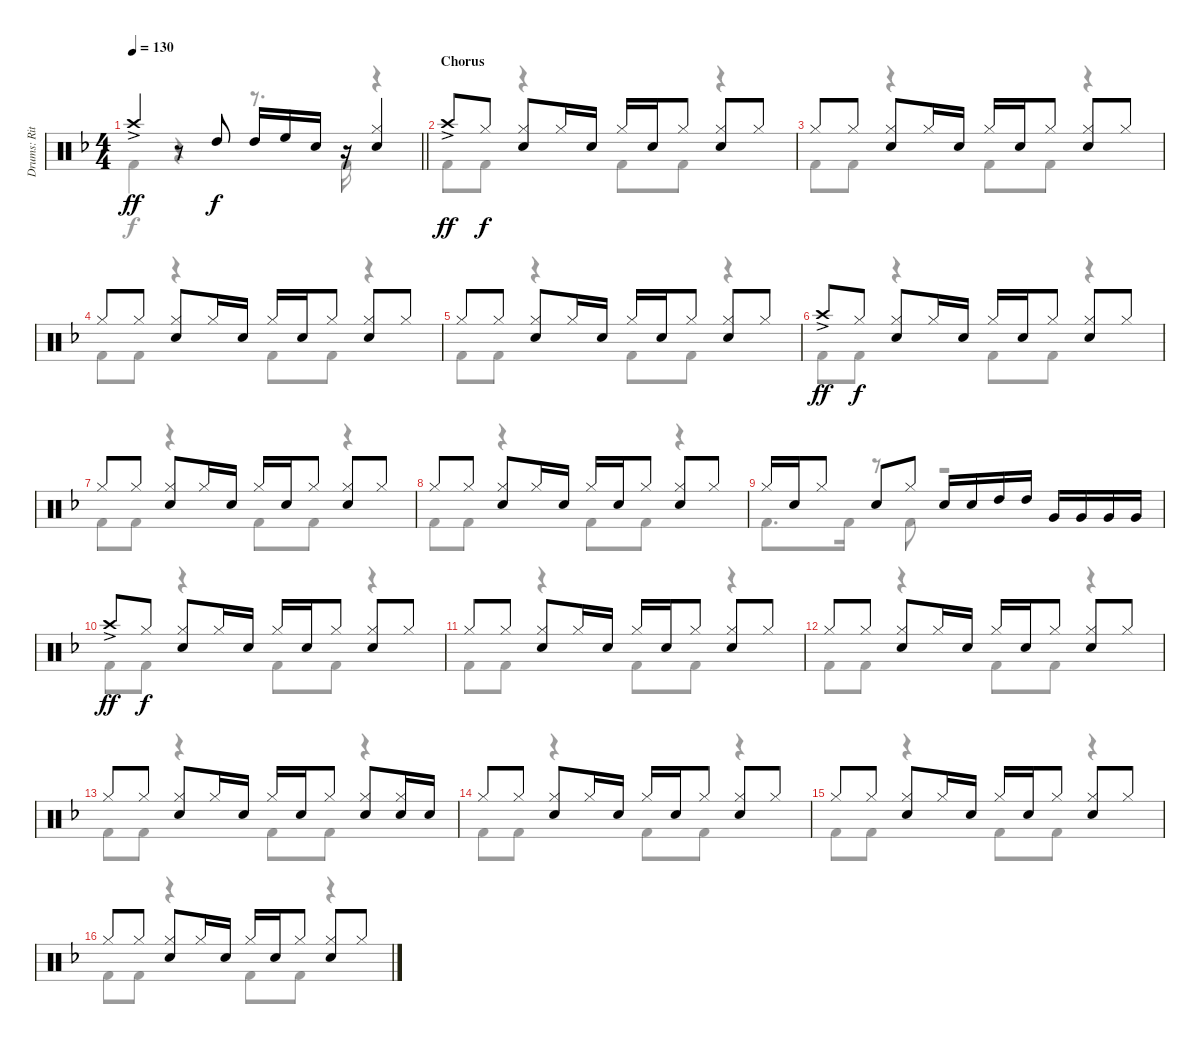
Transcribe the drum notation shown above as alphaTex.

\track ("Drums: Ritsu Tianaka" "Drums: Rit") {instrument percussion}
\staff {score}
\articulation defaults
\voice
\ts (4 4)
\tempo 130
\clef neutral
\barLineRight lightlight
\ks f "Crash high (hit)"{ac}.4{dy ff}
r.8 "High Tom (hit)".8{dy f} "High Tom (hit)".16 "High Floor Tom (hit)".16 "Electric Snare (hit)".16 r.16 ("Hi-Hat (closed)" "Electric Snare (hit)").4 |
\section ("" "Chorus")
"Crash high (hit)"{ac}.8{dy ff} "Hi-Hat (closed)".8{dy f} ("Hi-Hat (closed)" "Electric Snare (hit)").8 "Hi-Hat (closed)".16 "Electric Snare (hit)".16 "Hi-Hat (closed)".16 "Electric Snare (hit)".16 "Hi-Hat (closed)".8 ("Hi-Hat (closed)" "Electric Snare (hit)").8 "Hi-Hat (closed)".8 |
"Hi-Hat (closed)".8 "Hi-Hat (closed)".8 ("Hi-Hat (closed)" "Electric Snare (hit)").8 "Hi-Hat (closed)".16 "Electric Snare (hit)".16 "Hi-Hat (closed)".16 "Electric Snare (hit)".16 "Hi-Hat (closed)".8 ("Hi-Hat (closed)" "Electric Snare (hit)").8 "Hi-Hat (closed)".8 |
"Hi-Hat (closed)".8 "Hi-Hat (closed)".8 ("Hi-Hat (closed)" "Electric Snare (hit)").8 "Hi-Hat (closed)".16 "Electric Snare (hit)".16 "Hi-Hat (closed)".16 "Electric Snare (hit)".16 "Hi-Hat (closed)".8 ("Hi-Hat (closed)" "Electric Snare (hit)").8 "Hi-Hat (closed)".8 |
"Hi-Hat (closed)".8 "Hi-Hat (closed)".8 ("Hi-Hat (closed)" "Electric Snare (hit)").8 "Hi-Hat (closed)".16 "Electric Snare (hit)".16 "Hi-Hat (closed)".16 "Electric Snare (hit)".16 "Hi-Hat (closed)".8 ("Hi-Hat (closed)" "Electric Snare (hit)").8 "Hi-Hat (closed)".8 |
"Crash high (hit)"{ac}.8{dy ff} "Hi-Hat (closed)".8{dy f} ("Hi-Hat (closed)" "Electric Snare (hit)").8 "Hi-Hat (closed)".16 "Electric Snare (hit)".16 "Hi-Hat (closed)".16 "Electric Snare (hit)".16 "Hi-Hat (closed)".8 ("Hi-Hat (closed)" "Electric Snare (hit)").8 "Hi-Hat (closed)".8 |
"Hi-Hat (closed)".8 "Hi-Hat (closed)".8 ("Hi-Hat (closed)" "Electric Snare (hit)").8 "Hi-Hat (closed)".16 "Electric Snare (hit)".16 "Hi-Hat (closed)".16 "Electric Snare (hit)".16 "Hi-Hat (closed)".8 ("Hi-Hat (closed)" "Electric Snare (hit)").8 "Hi-Hat (closed)".8 |
"Hi-Hat (closed)".8 "Hi-Hat (closed)".8 ("Hi-Hat (closed)" "Electric Snare (hit)").8 "Hi-Hat (closed)".16 "Electric Snare (hit)".16 "Hi-Hat (closed)".16 "Electric Snare (hit)".16 "Hi-Hat (closed)".8 ("Hi-Hat (closed)" "Electric Snare (hit)").8 "Hi-Hat (closed)".8 |
"Hi-Hat (closed)".16 "Electric Snare (hit)".16 "Hi-Hat (closed)".8 "Electric Snare (hit)".8 "Hi-Hat (closed)".8 "Electric Snare (hit)".16 "Electric Snare (hit)".16 "High Tom (hit)".16 "High Tom (hit)".16 "Very Low Tom (hit)".16 "Very Low Tom (hit)".16 "Very Low Tom (hit)".16 "Very Low Tom (hit)".16 |
"Crash high (hit)"{ac}.8{dy ff} "Hi-Hat (closed)".8{dy f} ("Hi-Hat (closed)" "Electric Snare (hit)").8 "Hi-Hat (closed)".16 "Electric Snare (hit)".16 "Hi-Hat (closed)".16 "Electric Snare (hit)".16 "Hi-Hat (closed)".8 ("Hi-Hat (closed)" "Electric Snare (hit)").8 "Hi-Hat (closed)".8 |
"Hi-Hat (closed)".8 "Hi-Hat (closed)".8 ("Hi-Hat (closed)" "Electric Snare (hit)").8 "Hi-Hat (closed)".16 "Electric Snare (hit)".16 "Hi-Hat (closed)".16 "Electric Snare (hit)".16 "Hi-Hat (closed)".8 ("Hi-Hat (closed)" "Electric Snare (hit)").8 "Hi-Hat (closed)".8 |
"Hi-Hat (closed)".8 "Hi-Hat (closed)".8 ("Hi-Hat (closed)" "Electric Snare (hit)").8 "Hi-Hat (closed)".16 "Electric Snare (hit)".16 "Hi-Hat (closed)".16 "Electric Snare (hit)".16 "Hi-Hat (closed)".8 ("Hi-Hat (closed)" "Electric Snare (hit)").8 "Hi-Hat (closed)".8 |
"Hi-Hat (closed)".8 "Hi-Hat (closed)".8 ("Hi-Hat (closed)" "Electric Snare (hit)").8 "Hi-Hat (closed)".16 "Electric Snare (hit)".16 "Hi-Hat (closed)".16 "Electric Snare (hit)".16 "Hi-Hat (closed)".8 ("Hi-Hat (closed)" "Electric Snare (hit)").8 ("Hi-Hat (closed)" "Electric Snare (hit)").16 "Electric Snare (hit)".16 |
"Hi-Hat (closed)".8 "Hi-Hat (closed)".8 ("Hi-Hat (closed)" "Electric Snare (hit)").8 "Hi-Hat (closed)".16 "Electric Snare (hit)".16 "Hi-Hat (closed)".16 "Electric Snare (hit)".16 "Hi-Hat (closed)".8 ("Hi-Hat (closed)" "Electric Snare (hit)").8 "Hi-Hat (closed)".8 |
"Hi-Hat (closed)".8 "Hi-Hat (closed)".8 ("Hi-Hat (closed)" "Electric Snare (hit)").8 "Hi-Hat (closed)".16 "Electric Snare (hit)".16 "Hi-Hat (closed)".16 "Electric Snare (hit)".16 "Hi-Hat (closed)".8 ("Hi-Hat (closed)" "Electric Snare (hit)").8 "Hi-Hat (closed)".8 |
"Hi-Hat (closed)".8 "Hi-Hat (closed)".8 ("Hi-Hat (closed)" "Electric Snare (hit)").8 "Hi-Hat (closed)".16 "Electric Snare (hit)".16 "Hi-Hat (closed)".16 "Electric Snare (hit)".16 "Hi-Hat (closed)".8 ("Hi-Hat (closed)" "Electric Snare (hit)").8 "Hi-Hat (closed)".8
\voice
\clef neutral
\ottava regular
\simile none
\barLineRight lightlight
\ks f "Kick (hit) 2".4{dy f}
r.4 r.8{d} "Kick (hit) 2".16 r.4 |
"Kick (hit) 2".8 "Kick (hit) 2".8 r.4 "Kick (hit) 2".8 "Kick (hit) 2".8 r.4 |
"Kick (hit) 2".8 "Kick (hit) 2".8 r.4 "Kick (hit) 2".8 "Kick (hit) 2".8 r.4 |
"Kick (hit) 2".8 "Kick (hit) 2".8 r.4 "Kick (hit) 2".8 "Kick (hit) 2".8 r.4 |
"Kick (hit) 2".8 "Kick (hit) 2".8 r.4 "Kick (hit) 2".8 "Kick (hit) 2".8 r.4 |
"Kick (hit) 2".8 "Kick (hit) 2".8 r.4 "Kick (hit) 2".8 "Kick (hit) 2".8 r.4 |
"Kick (hit) 2".8 "Kick (hit) 2".8 r.4 "Kick (hit) 2".8 "Kick (hit) 2".8 r.4 |
"Kick (hit) 2".8 "Kick (hit) 2".8 r.4 "Kick (hit) 2".8 "Kick (hit) 2".8 r.4 |
"Kick (hit) 2".8{d} "Kick (hit) 2".16 r.8 "Kick (hit) 2".8 r.2 |
"Kick (hit) 2".8 "Kick (hit) 2".8 r.4 "Kick (hit) 2".8 "Kick (hit) 2".8 r.4 |
"Kick (hit) 2".8 "Kick (hit) 2".8 r.4 "Kick (hit) 2".8 "Kick (hit) 2".8 r.4 |
"Kick (hit) 2".8 "Kick (hit) 2".8 r.4 "Kick (hit) 2".8 "Kick (hit) 2".8 r.4 |
"Kick (hit) 2".8 "Kick (hit) 2".8 r.4 "Kick (hit) 2".8 "Kick (hit) 2".8 r.4 |
"Kick (hit) 2".8 "Kick (hit) 2".8 r.4 "Kick (hit) 2".8 "Kick (hit) 2".8 r.4 |
"Kick (hit) 2".8 "Kick (hit) 2".8 r.4 "Kick (hit) 2".8 "Kick (hit) 2".8 r.4 |
"Kick (hit) 2".8 "Kick (hit) 2".8 r.4 "Kick (hit) 2".8 "Kick (hit) 2".8 r.4
